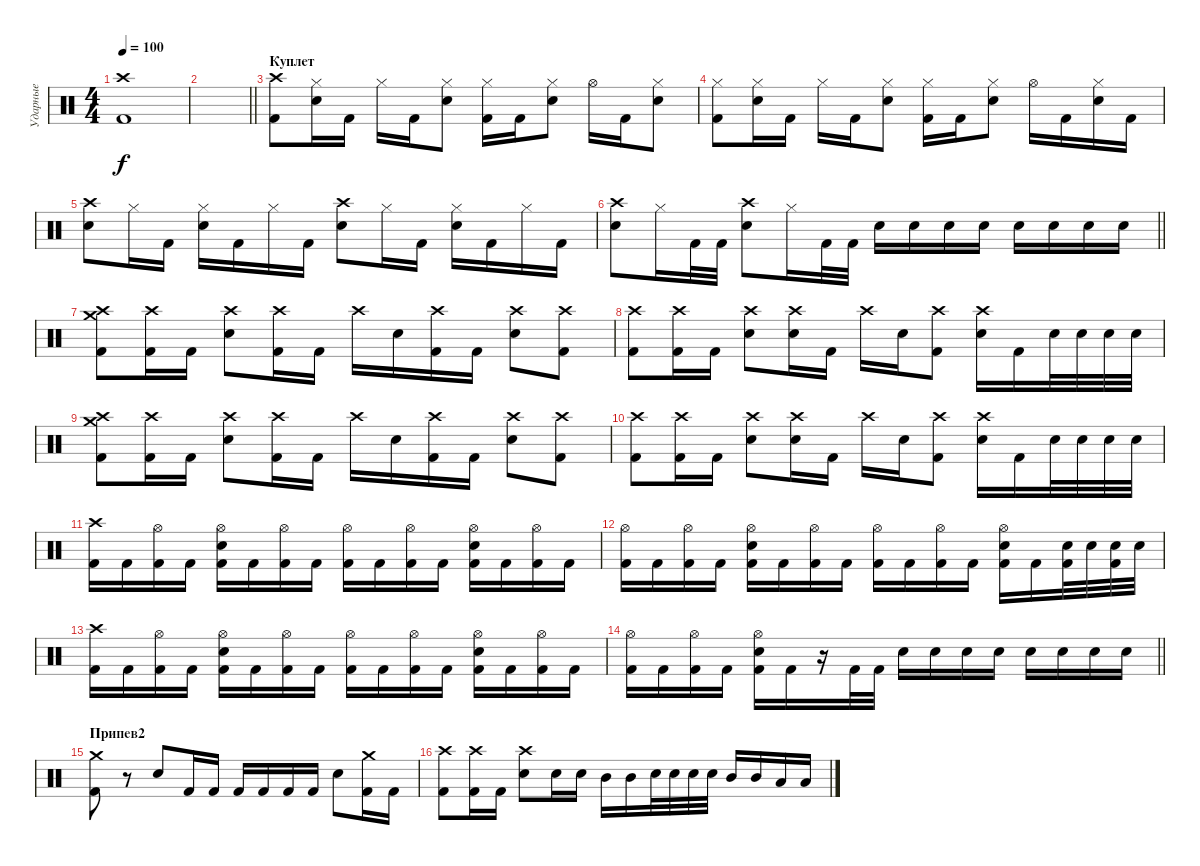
\track ("Ударные" "Ударные") {instrument percussion}
\staff {score}
\articulation defaults
\ts (4 4)
\tempo 100
\clef neutral
\ks c
("Crash high (hit)" "Kick (hit) 2").1{dy f} |
\barLineRight lightlight
|
\section ("" "Куплет")
("Crash high (hit)" "Kick (hit) 2").8 ("Hi-Hat (closed)" "Snare (hit) 2").16 "Kick (hit) 2".16 "Hi-Hat (closed)".16 "Kick (hit) 2".16 ("Hi-Hat (closed)" "Snare (hit) 2").8 ("Hi-Hat (closed)" "Kick (hit) 2").16 "Kick (hit) 2".16 ("Hi-Hat (closed)" "Snare (hit) 2").8 "Hi-Hat (open)".16 "Kick (hit) 2".16 ("Hi-Hat (closed)" "Snare (hit) 2").8 |
("Hi-Hat (closed)" "Kick (hit) 2").8 ("Hi-Hat (closed)" "Snare (hit) 2").16 "Kick (hit) 2".16 "Hi-Hat (closed)".16 "Kick (hit) 2".16 ("Hi-Hat (closed)" "Snare (hit) 2").8 ("Hi-Hat (closed)" "Kick (hit) 2").16 "Kick (hit) 2".16 ("Hi-Hat (closed)" "Snare (hit) 2").8 "Hi-Hat (open)".16 "Kick (hit) 2".16 ("Hi-Hat (closed)" "Snare (hit) 2").16 "Kick (hit) 2".16 |
("Crash high (hit)" "Snare (hit) 2").8 "Hi-Hat (closed)".16 "Kick (hit) 2".16 ("Snare (hit) 2" "Hi-Hat (closed)").16 "Kick (hit) 2".16 "Hi-Hat (closed)".16 "Kick (hit) 2".16 ("Crash high (hit)" "Snare (hit) 2").8 "Hi-Hat (closed)".16 "Kick (hit) 2".16 ("Hi-Hat (closed)" "Snare (hit) 2").16 "Kick (hit) 2".16 "Hi-Hat (closed)".16 "Kick (hit) 2".16 |
\barLineRight lightlight
("Crash high (hit)" "Snare (hit) 2").8 "Hi-Hat (closed)".16 "Kick (hit) 2".32 "Kick (hit) 2".32 ("Crash high (hit)" "Snare (hit) 2").8 "Hi-Hat (closed)".16 "Kick (hit) 2".32 "Kick (hit) 2".32 "Snare (hit) 2".16 "Snare (hit) 2".16 "Snare (hit) 2".16 "Snare (hit) 2".16 "Snare (hit) 2".16 "Snare (hit) 2".16 "Snare (hit) 2".16 "Snare (hit) 2".16 |
("Crash high (hit)" "Kick (hit) 2" "Crash medium (hit)").8 ("Crash high (hit)" "Kick (hit) 2").16 "Kick (hit) 2".16 ("Crash high (hit)" "Snare (hit) 2").8 ("Crash high (hit)" "Kick (hit) 2").16 "Kick (hit) 2".16 "Crash high (hit)".16 "Snare (hit) 2".16 ("Kick (hit) 2" "Crash high (hit)").16 "Kick (hit) 2".16 ("Snare (hit) 2" "Crash high (hit)").8 ("Crash high (hit)" "Kick (hit) 2").8 |
("Crash high (hit)" "Kick (hit) 2").8 ("Crash high (hit)" "Kick (hit) 2").16 "Kick (hit) 2".16 ("Crash high (hit)" "Snare (hit) 2").8 ("Crash high (hit)" "Snare (hit) 2").16 "Kick (hit) 2".16 "Crash high (hit)".16 "Snare (hit) 2".16 ("Kick (hit) 2" "Crash high (hit)").8 ("Snare (hit) 2" "Crash high (hit)").16 "Kick (hit) 2".16 "Snare (hit) 2".32 "Snare (hit) 2".32 "Snare (hit) 2".32 "Snare (hit) 2".32 |
("Crash high (hit)" "Kick (hit) 2" "Crash medium (hit)").8 ("Crash high (hit)" "Kick (hit) 2").16 "Kick (hit) 2".16 ("Crash high (hit)" "Snare (hit) 2").8 ("Crash high (hit)" "Kick (hit) 2").16 "Kick (hit) 2".16 "Crash high (hit)".16 "Snare (hit) 2".16 ("Kick (hit) 2" "Crash high (hit)").16 "Kick (hit) 2".16 ("Snare (hit) 2" "Crash high (hit)").8 ("Crash high (hit)" "Kick (hit) 2").8 |
("Crash high (hit)" "Kick (hit) 2").8 ("Crash high (hit)" "Kick (hit) 2").16 "Kick (hit) 2".16 ("Crash high (hit)" "Snare (hit) 2").8 ("Crash high (hit)" "Snare (hit) 2").16 "Kick (hit) 2".16 "Crash high (hit)".16 "Snare (hit) 2".16 ("Kick (hit) 2" "Crash high (hit)").8 ("Snare (hit) 2" "Crash high (hit)").16 "Kick (hit) 2".16 "Snare (hit) 2".32 "Snare (hit) 2".32 "Snare (hit) 2".32 "Snare (hit) 2".32 |
("Kick (hit) 2" "Crash high (hit)").16 "Kick (hit) 2".16 ("Kick (hit) 2" "Hi-Hat (open)").16 "Kick (hit) 2".16 ("Kick (hit) 2" "Snare (hit) 2" "Hi-Hat (open)").16 "Kick (hit) 2".16 ("Kick (hit) 2" "Hi-Hat (open)").16 "Kick (hit) 2".16 ("Kick (hit) 2" "Hi-Hat (open)").16 "Kick (hit) 2".16 ("Kick (hit) 2" "Hi-Hat (open)").16 "Kick (hit) 2".16 ("Kick (hit) 2" "Snare (hit) 2" "Hi-Hat (open)").16 "Kick (hit) 2".16 ("Kick (hit) 2" "Hi-Hat (open)").16 "Kick (hit) 2".16 |
("Kick (hit) 2" "Hi-Hat (open)").16 "Kick (hit) 2".16 ("Kick (hit) 2" "Hi-Hat (open)").16 "Kick (hit) 2".16 ("Kick (hit) 2" "Snare (hit) 2" "Hi-Hat (open)").16 "Kick (hit) 2".16 ("Kick (hit) 2" "Hi-Hat (open)").16 "Kick (hit) 2".16 ("Kick (hit) 2" "Hi-Hat (open)").16 "Kick (hit) 2".16 ("Kick (hit) 2" "Hi-Hat (open)").16 "Kick (hit) 2".16 ("Kick (hit) 2" "Snare (hit) 2" "Hi-Hat (open)").16 "Kick (hit) 2".16 ("Kick (hit) 2" "Snare (hit) 2").32 "Snare (hit) 2".32 ("Kick (hit) 2" "Snare (hit) 2").32 "Snare (hit) 2".32 |
("Kick (hit) 2" "Crash high (hit)").16 "Kick (hit) 2".16 ("Kick (hit) 2" "Hi-Hat (open)").16 "Kick (hit) 2".16 ("Kick (hit) 2" "Snare (hit) 2" "Hi-Hat (open)").16 "Kick (hit) 2".16 ("Kick (hit) 2" "Hi-Hat (open)").16 "Kick (hit) 2".16 ("Kick (hit) 2" "Hi-Hat (open)").16 "Kick (hit) 2".16 ("Kick (hit) 2" "Hi-Hat (open)").16 "Kick (hit) 2".16 ("Kick (hit) 2" "Snare (hit) 2" "Hi-Hat (open)").16 "Kick (hit) 2".16 ("Kick (hit) 2" "Hi-Hat (open)").16 "Kick (hit) 2".16 |
\barLineRight lightlight
("Kick (hit) 2" "Hi-Hat (open)").16 "Kick (hit) 2".16 ("Kick (hit) 2" "Hi-Hat (open)").16 "Kick (hit) 2".16 ("Kick (hit) 2" "Snare (hit) 2" "Hi-Hat (open)").16 "Kick (hit) 2".16 r.16 "Kick (hit) 2".32 "Kick (hit) 2".32 "Snare (hit) 2".16 "Snare (hit) 2".16 "Snare (hit) 2".16 "Snare (hit) 2".16 "Snare (hit) 2".16 "Snare (hit) 2".16 "Snare (hit) 2".16 "Snare (hit) 2".16 |
\section ("" "Припев2")
("Kick (hit) 2" "Crash medium (hit)").8 r.8 "Snare (hit) 2".8 "Kick (hit) 2".16 "Kick (hit) 2".16 "Kick (hit) 2".16 "Kick (hit) 2".16 "Kick (hit) 2".16 "Kick (hit) 2".16 "Snare (hit) 2".8 ("Crash medium (hit)" "Kick (hit) 2").16 "Kick (hit) 2".16 |
("Kick (hit) 2" "Crash high (hit)").8 ("Kick (hit) 2" "Crash high (hit)").16 "Kick (hit) 2".16 ("Crash high (hit)" "Snare (hit) 2").8 "Snare (hit) 2".16 "Snare (hit) 2".16 "Mid Tom (hit)".16 "Mid Tom (hit)".16 "Snare (hit) 2".32 "Snare (hit) 2".32 "Snare (hit) 2".32 "Snare (hit) 2".32 "Mid Tom (hit)".16 "Mid Tom (hit)".16 "Low Tom (hit)".16 "Low Tom (hit)".16
